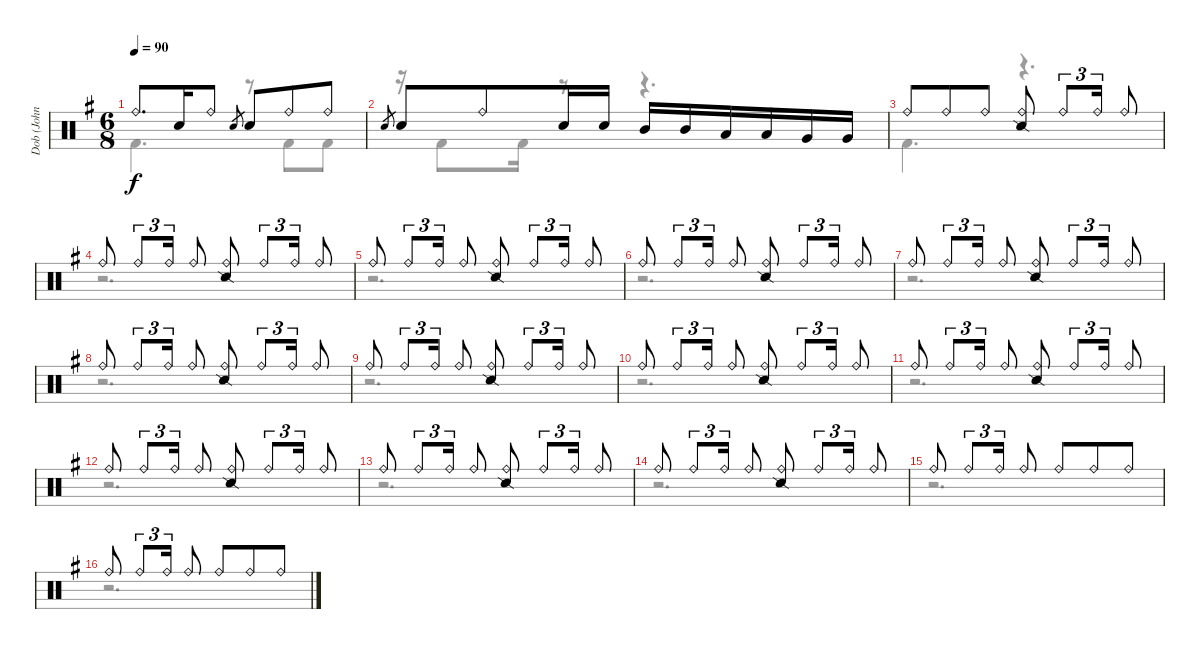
\track ("Dob (John Macaluso)" "Dob (John ") {instrument percussion}
\staff {score}
\articulation defaults
\voice
\ts (6 8)
\tempo 90
\clef neutral
\ks g "Ride (bell)".8{d dy f} "Electric Snare (hit)".16 "Ride (bell)".8 "Electric Snare (hit)".8{gr} "Electric Snare (hit)".8 "Ride (bell)".8 "Ride (bell)".8
|
"Electric Snare (hit)".8{gr} "Electric Snare (hit)".8 "Ride (bell)".8 "Electric Snare (hit)".16 "Electric Snare (hit)".16 "Mid Tom (hit)".16 "Mid Tom (hit)".16 "Low Tom (hit)".16 "Low Tom (hit)".16 "Very Low Tom (hit)".16 "Very Low Tom (hit)".16 |
"Ride (bell)".8 "Ride (bell)".8 "Ride (bell)".8 ("Ride (bell)" "Snare (side stick) 2").8 "Ride (bell)".8{tu (3 2)} "Ride (bell)".16{tu (3 2)} "Ride (bell)".8 |
"Ride (bell)".8 "Ride (bell)".8{tu (3 2)} "Ride (bell)".16{tu (3 2)} "Ride (bell)".8 ("Ride (bell)" "Snare (side stick) 2").8 "Ride (bell)".8{tu (3 2)} "Ride (bell)".16{tu (3 2)} "Ride (bell)".8 |
"Ride (bell)".8 "Ride (bell)".8{tu (3 2)} "Ride (bell)".16{tu (3 2)} "Ride (bell)".8 ("Ride (bell)" "Snare (side stick) 2").8 "Ride (bell)".8{tu (3 2)} "Ride (bell)".16{tu (3 2)} "Ride (bell)".8 |
"Ride (bell)".8 "Ride (bell)".8{tu (3 2)} "Ride (bell)".16{tu (3 2)} "Ride (bell)".8 ("Ride (bell)" "Snare (side stick) 2").8 "Ride (bell)".8{tu (3 2)} "Ride (bell)".16{tu (3 2)} "Ride (bell)".8 |
"Ride (bell)".8 "Ride (bell)".8{tu (3 2)} "Ride (bell)".16{tu (3 2)} "Ride (bell)".8 ("Ride (bell)" "Snare (side stick) 2").8 "Ride (bell)".8{tu (3 2)} "Ride (bell)".16{tu (3 2)} "Ride (bell)".8 |
"Ride (bell)".8 "Ride (bell)".8{tu (3 2)} "Ride (bell)".16{tu (3 2)} "Ride (bell)".8 ("Ride (bell)" "Snare (side stick) 2").8 "Ride (bell)".8{tu (3 2)} "Ride (bell)".16{tu (3 2)} "Ride (bell)".8 |
"Ride (bell)".8 "Ride (bell)".8{tu (3 2)} "Ride (bell)".16{tu (3 2)} "Ride (bell)".8 ("Ride (bell)" "Snare (side stick) 2").8 "Ride (bell)".8{tu (3 2)} "Ride (bell)".16{tu (3 2)} "Ride (bell)".8 |
"Ride (bell)".8 "Ride (bell)".8{tu (3 2)} "Ride (bell)".16{tu (3 2)} "Ride (bell)".8 ("Ride (bell)" "Snare (side stick) 2").8 "Ride (bell)".8{tu (3 2)} "Ride (bell)".16{tu (3 2)} "Ride (bell)".8 |
"Ride (bell)".8 "Ride (bell)".8{tu (3 2)} "Ride (bell)".16{tu (3 2)} "Ride (bell)".8 ("Ride (bell)" "Snare (side stick) 2").8 "Ride (bell)".8{tu (3 2)} "Ride (bell)".16{tu (3 2)} "Ride (bell)".8 |
"Ride (bell)".8 "Ride (bell)".8{tu (3 2)} "Ride (bell)".16{tu (3 2)} "Ride (bell)".8 ("Ride (bell)" "Snare (side stick) 2").8 "Ride (bell)".8{tu (3 2)} "Ride (bell)".16{tu (3 2)} "Ride (bell)".8 |
"Ride (bell)".8 "Ride (bell)".8{tu (3 2)} "Ride (bell)".16{tu (3 2)} "Ride (bell)".8 ("Ride (bell)" "Snare (side stick) 2").8 "Ride (bell)".8{tu (3 2)} "Ride (bell)".16{tu (3 2)} "Ride (bell)".8 |
"Ride (bell)".8 "Ride (bell)".8{tu (3 2)} "Ride (bell)".16{tu (3 2)} "Ride (bell)".8 ("Ride (bell)" "Snare (side stick) 2").8 "Ride (bell)".8{tu (3 2)} "Ride (bell)".16{tu (3 2)} "Ride (bell)".8 |
"Ride (bell)".8 "Ride (bell)".8{tu (3 2)} "Ride (bell)".16{tu (3 2)} "Ride (bell)".8 "Ride (bell)".8 "Ride (bell)".8 "Ride (bell)".8 |
"Ride (bell)".8 "Ride (bell)".8{tu (3 2)} "Ride (bell)".16{tu (3 2)} "Ride (bell)".8 "Ride (bell)".8 "Ride (bell)".8 "Ride (bell)".8
\voice
\clef neutral
\ottava regular
\simile none
\ks g "Kick (hit) 2".4{d dy f}
r.8 "Kick (hit) 2".8 "Kick (hit) 2".8 |
r.16 "Kick (hit) 2".8 "Kick (hit) 2".16 r.8 r.4{d} |
"Kick (hit) 2".4{d} r.4{d} |
r.2{d} |
r.2{d} |
r.2{d} |
r.2{d} |
r.2{d} |
r.2{d} |
r.2{d} |
r.2{d} |
r.2{d} |
r.2{d} |
r.2{d} |
r.2{d} |
r.2{d}
